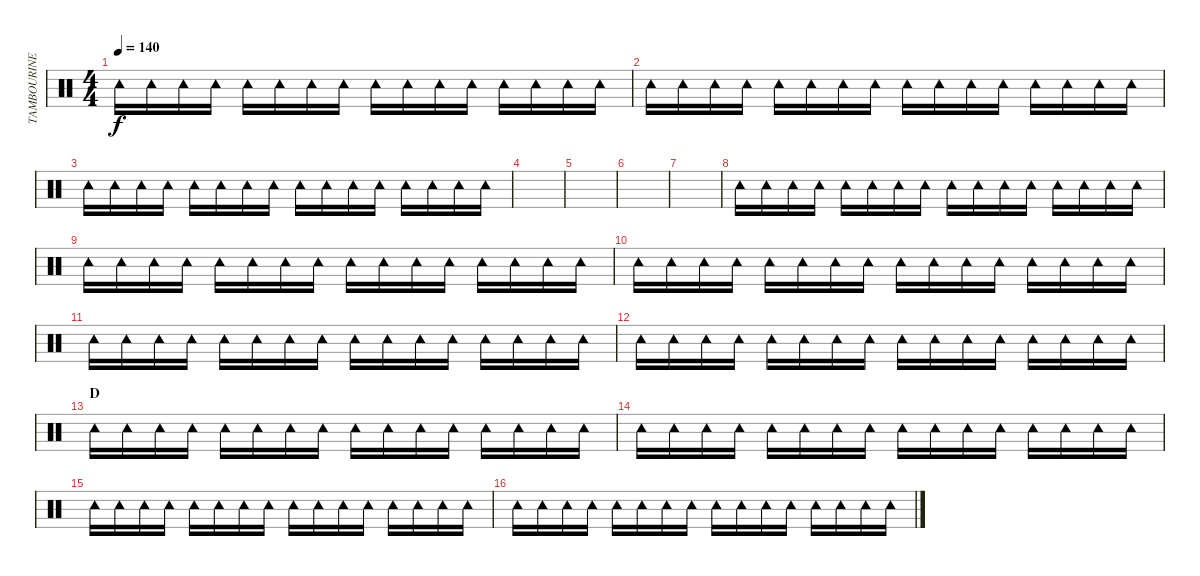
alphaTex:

\track ("TAMBOURINE" "TAMBOURINE") {instrument percussion}
\staff {score}
\articulation defaults
\ts (4 4)
\tempo 140
\clef neutral
\ks c "Tambourine (hit)".16{dy f} "Tambourine (hit)".16 "Tambourine (hit)".16 "Tambourine (hit)".16 "Tambourine (hit)".16 "Tambourine (hit)".16 "Tambourine (hit)".16 "Tambourine (hit)".16 "Tambourine (hit)".16 "Tambourine (hit)".16 "Tambourine (hit)".16 "Tambourine (hit)".16 "Tambourine (hit)".16 "Tambourine (hit)".16 "Tambourine (hit)".16 "Tambourine (hit)".16
|
"Tambourine (hit)".16 "Tambourine (hit)".16 "Tambourine (hit)".16 "Tambourine (hit)".16 "Tambourine (hit)".16 "Tambourine (hit)".16 "Tambourine (hit)".16 "Tambourine (hit)".16 "Tambourine (hit)".16 "Tambourine (hit)".16 "Tambourine (hit)".16 "Tambourine (hit)".16 "Tambourine (hit)".16 "Tambourine (hit)".16 "Tambourine (hit)".16 "Tambourine (hit)".16 |
"Tambourine (hit)".16 "Tambourine (hit)".16 "Tambourine (hit)".16 "Tambourine (hit)".16 "Tambourine (hit)".16 "Tambourine (hit)".16 "Tambourine (hit)".16 "Tambourine (hit)".16 "Tambourine (hit)".16 "Tambourine (hit)".16 "Tambourine (hit)".16 "Tambourine (hit)".16 "Tambourine (hit)".16 "Tambourine (hit)".16 "Tambourine (hit)".16 "Tambourine (hit)".16 |
|
|
|
|
"Tambourine (hit)".16 "Tambourine (hit)".16 "Tambourine (hit)".16 "Tambourine (hit)".16 "Tambourine (hit)".16 "Tambourine (hit)".16 "Tambourine (hit)".16 "Tambourine (hit)".16 "Tambourine (hit)".16 "Tambourine (hit)".16 "Tambourine (hit)".16 "Tambourine (hit)".16 "Tambourine (hit)".16 "Tambourine (hit)".16 "Tambourine (hit)".16 "Tambourine (hit)".16 |
"Tambourine (hit)".16 "Tambourine (hit)".16 "Tambourine (hit)".16 "Tambourine (hit)".16 "Tambourine (hit)".16 "Tambourine (hit)".16 "Tambourine (hit)".16 "Tambourine (hit)".16 "Tambourine (hit)".16 "Tambourine (hit)".16 "Tambourine (hit)".16 "Tambourine (hit)".16 "Tambourine (hit)".16 "Tambourine (hit)".16 "Tambourine (hit)".16 "Tambourine (hit)".16 |
"Tambourine (hit)".16 "Tambourine (hit)".16 "Tambourine (hit)".16 "Tambourine (hit)".16 "Tambourine (hit)".16 "Tambourine (hit)".16 "Tambourine (hit)".16 "Tambourine (hit)".16 "Tambourine (hit)".16 "Tambourine (hit)".16 "Tambourine (hit)".16 "Tambourine (hit)".16 "Tambourine (hit)".16 "Tambourine (hit)".16 "Tambourine (hit)".16 "Tambourine (hit)".16 |
"Tambourine (hit)".16 "Tambourine (hit)".16 "Tambourine (hit)".16 "Tambourine (hit)".16 "Tambourine (hit)".16 "Tambourine (hit)".16 "Tambourine (hit)".16 "Tambourine (hit)".16 "Tambourine (hit)".16 "Tambourine (hit)".16 "Tambourine (hit)".16 "Tambourine (hit)".16 "Tambourine (hit)".16 "Tambourine (hit)".16 "Tambourine (hit)".16 "Tambourine (hit)".16 |
"Tambourine (hit)".16 "Tambourine (hit)".16 "Tambourine (hit)".16 "Tambourine (hit)".16 "Tambourine (hit)".16 "Tambourine (hit)".16 "Tambourine (hit)".16 "Tambourine (hit)".16 "Tambourine (hit)".16 "Tambourine (hit)".16 "Tambourine (hit)".16 "Tambourine (hit)".16 "Tambourine (hit)".16 "Tambourine (hit)".16 "Tambourine (hit)".16 "Tambourine (hit)".16 |
\section ("" "D")
"Tambourine (hit)".16 "Tambourine (hit)".16 "Tambourine (hit)".16 "Tambourine (hit)".16 "Tambourine (hit)".16 "Tambourine (hit)".16 "Tambourine (hit)".16 "Tambourine (hit)".16 "Tambourine (hit)".16 "Tambourine (hit)".16 "Tambourine (hit)".16 "Tambourine (hit)".16 "Tambourine (hit)".16 "Tambourine (hit)".16 "Tambourine (hit)".16 "Tambourine (hit)".16 |
"Tambourine (hit)".16 "Tambourine (hit)".16 "Tambourine (hit)".16 "Tambourine (hit)".16 "Tambourine (hit)".16 "Tambourine (hit)".16 "Tambourine (hit)".16 "Tambourine (hit)".16 "Tambourine (hit)".16 "Tambourine (hit)".16 "Tambourine (hit)".16 "Tambourine (hit)".16 "Tambourine (hit)".16 "Tambourine (hit)".16 "Tambourine (hit)".16 "Tambourine (hit)".16 |
"Tambourine (hit)".16 "Tambourine (hit)".16 "Tambourine (hit)".16 "Tambourine (hit)".16 "Tambourine (hit)".16 "Tambourine (hit)".16 "Tambourine (hit)".16 "Tambourine (hit)".16 "Tambourine (hit)".16 "Tambourine (hit)".16 "Tambourine (hit)".16 "Tambourine (hit)".16 "Tambourine (hit)".16 "Tambourine (hit)".16 "Tambourine (hit)".16 "Tambourine (hit)".16 |
"Tambourine (hit)".16 "Tambourine (hit)".16 "Tambourine (hit)".16 "Tambourine (hit)".16 "Tambourine (hit)".16 "Tambourine (hit)".16 "Tambourine (hit)".16 "Tambourine (hit)".16 "Tambourine (hit)".16 "Tambourine (hit)".16 "Tambourine (hit)".16 "Tambourine (hit)".16 "Tambourine (hit)".16 "Tambourine (hit)".16 "Tambourine (hit)".16 "Tambourine (hit)".16
